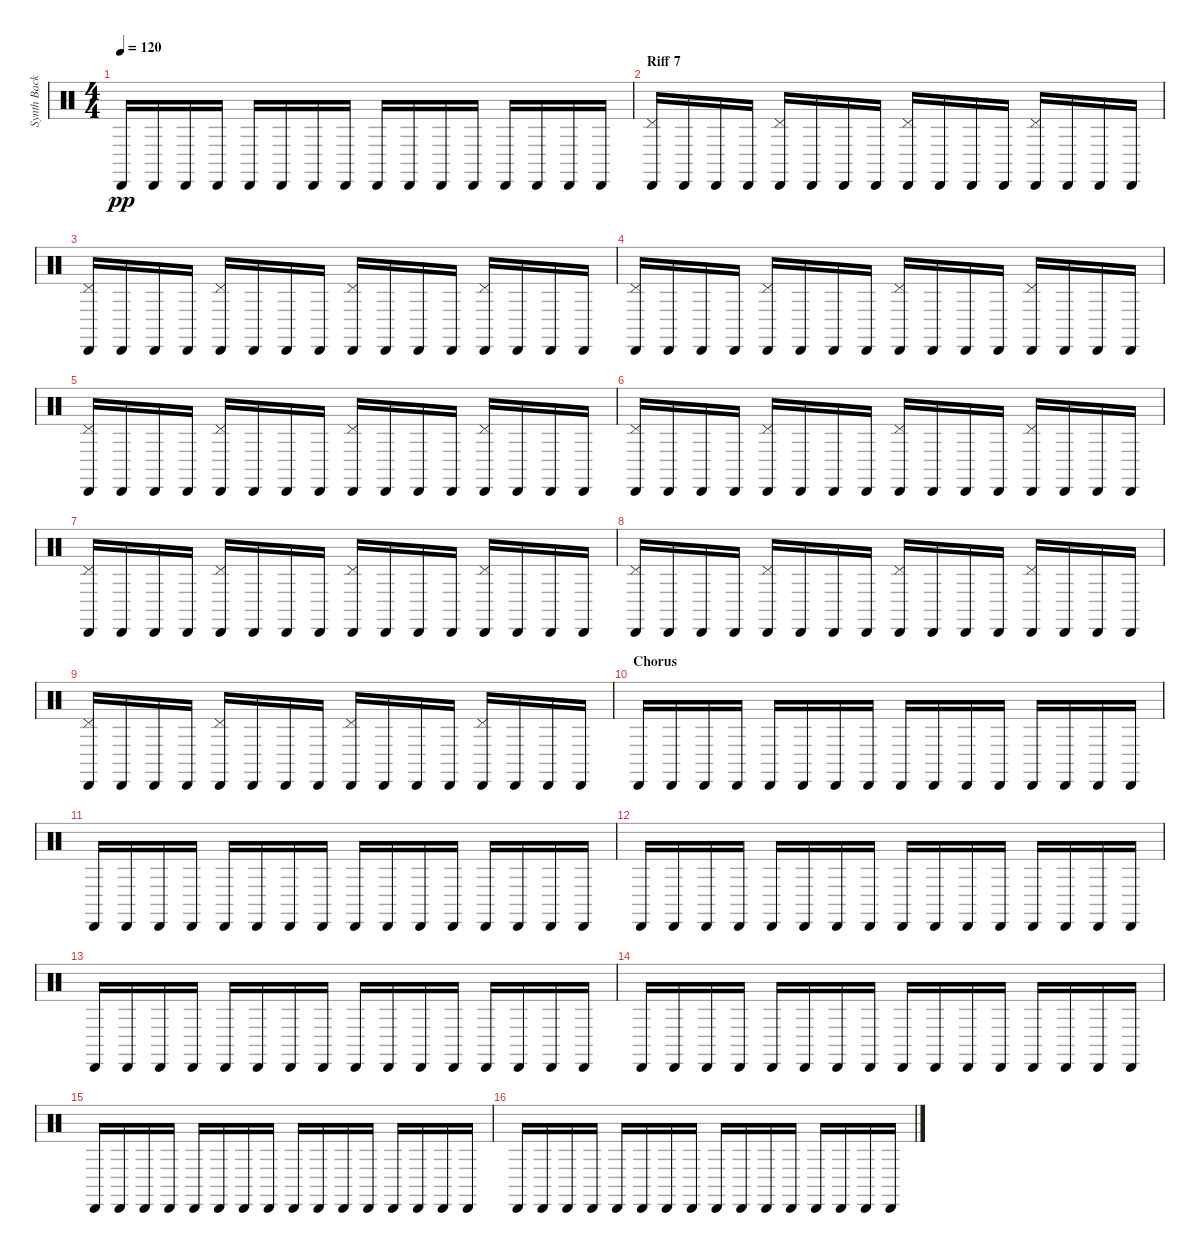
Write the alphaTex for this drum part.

\track ("Synth Background Rhythm" "Synth Back") {instrument percussion}
\staff {score}
\articulation defaults
\ts (4 4)
\tempo 120
\clef neutral
\ks c "Cabasa (hit)".16{dy pp} "Cabasa (hit)".16 "Cabasa (hit)".16 "Cabasa (hit)".16 "Cabasa (hit)".16 "Cabasa (hit)".16 "Cabasa (hit)".16 "Cabasa (hit)".16 "Cabasa (hit)".16 "Cabasa (hit)".16 "Cabasa (hit)".16 "Cabasa (hit)".16 "Cabasa (hit)".16 "Cabasa (hit)".16 "Cabasa (hit)".16 "Cabasa (hit)".16
|
\section ("" "Riff 7")
("Pedal Hi-Hat (hit)" "Cabasa (hit)").16 "Cabasa (hit)".16 "Cabasa (hit)".16 "Cabasa (hit)".16 ("Pedal Hi-Hat (hit)" "Cabasa (hit)").16 "Cabasa (hit)".16 "Cabasa (hit)".16 "Cabasa (hit)".16 ("Pedal Hi-Hat (hit)" "Cabasa (hit)").16 "Cabasa (hit)".16 "Cabasa (hit)".16 "Cabasa (hit)".16 ("Pedal Hi-Hat (hit)" "Cabasa (hit)").16 "Cabasa (hit)".16 "Cabasa (hit)".16 "Cabasa (hit)".16 |
("Pedal Hi-Hat (hit)" "Cabasa (hit)").16 "Cabasa (hit)".16 "Cabasa (hit)".16 "Cabasa (hit)".16 ("Pedal Hi-Hat (hit)" "Cabasa (hit)").16 "Cabasa (hit)".16 "Cabasa (hit)".16 "Cabasa (hit)".16 ("Pedal Hi-Hat (hit)" "Cabasa (hit)").16 "Cabasa (hit)".16 "Cabasa (hit)".16 "Cabasa (hit)".16 ("Pedal Hi-Hat (hit)" "Cabasa (hit)").16 "Cabasa (hit)".16 "Cabasa (hit)".16 "Cabasa (hit)".16 |
("Pedal Hi-Hat (hit)" "Cabasa (hit)").16 "Cabasa (hit)".16 "Cabasa (hit)".16 "Cabasa (hit)".16 ("Pedal Hi-Hat (hit)" "Cabasa (hit)").16 "Cabasa (hit)".16 "Cabasa (hit)".16 "Cabasa (hit)".16 ("Pedal Hi-Hat (hit)" "Cabasa (hit)").16 "Cabasa (hit)".16 "Cabasa (hit)".16 "Cabasa (hit)".16 ("Pedal Hi-Hat (hit)" "Cabasa (hit)").16 "Cabasa (hit)".16 "Cabasa (hit)".16 "Cabasa (hit)".16 |
("Pedal Hi-Hat (hit)" "Cabasa (hit)").16 "Cabasa (hit)".16 "Cabasa (hit)".16 "Cabasa (hit)".16 ("Pedal Hi-Hat (hit)" "Cabasa (hit)").16 "Cabasa (hit)".16 "Cabasa (hit)".16 "Cabasa (hit)".16 ("Pedal Hi-Hat (hit)" "Cabasa (hit)").16 "Cabasa (hit)".16 "Cabasa (hit)".16 "Cabasa (hit)".16 ("Pedal Hi-Hat (hit)" "Cabasa (hit)").16 "Cabasa (hit)".16 "Cabasa (hit)".16 "Cabasa (hit)".16 |
("Pedal Hi-Hat (hit)" "Cabasa (hit)").16 "Cabasa (hit)".16 "Cabasa (hit)".16 "Cabasa (hit)".16 ("Pedal Hi-Hat (hit)" "Cabasa (hit)").16 "Cabasa (hit)".16 "Cabasa (hit)".16 "Cabasa (hit)".16 ("Pedal Hi-Hat (hit)" "Cabasa (hit)").16 "Cabasa (hit)".16 "Cabasa (hit)".16 "Cabasa (hit)".16 ("Pedal Hi-Hat (hit)" "Cabasa (hit)").16 "Cabasa (hit)".16 "Cabasa (hit)".16 "Cabasa (hit)".16 |
("Pedal Hi-Hat (hit)" "Cabasa (hit)").16 "Cabasa (hit)".16 "Cabasa (hit)".16 "Cabasa (hit)".16 ("Pedal Hi-Hat (hit)" "Cabasa (hit)").16 "Cabasa (hit)".16 "Cabasa (hit)".16 "Cabasa (hit)".16 ("Pedal Hi-Hat (hit)" "Cabasa (hit)").16 "Cabasa (hit)".16 "Cabasa (hit)".16 "Cabasa (hit)".16 ("Pedal Hi-Hat (hit)" "Cabasa (hit)").16 "Cabasa (hit)".16 "Cabasa (hit)".16 "Cabasa (hit)".16 |
("Pedal Hi-Hat (hit)" "Cabasa (hit)").16 "Cabasa (hit)".16 "Cabasa (hit)".16 "Cabasa (hit)".16 ("Pedal Hi-Hat (hit)" "Cabasa (hit)").16 "Cabasa (hit)".16 "Cabasa (hit)".16 "Cabasa (hit)".16 ("Pedal Hi-Hat (hit)" "Cabasa (hit)").16 "Cabasa (hit)".16 "Cabasa (hit)".16 "Cabasa (hit)".16 ("Pedal Hi-Hat (hit)" "Cabasa (hit)").16 "Cabasa (hit)".16 "Cabasa (hit)".16 "Cabasa (hit)".16 |
("Pedal Hi-Hat (hit)" "Cabasa (hit)").16 "Cabasa (hit)".16 "Cabasa (hit)".16 "Cabasa (hit)".16 ("Pedal Hi-Hat (hit)" "Cabasa (hit)").16 "Cabasa (hit)".16 "Cabasa (hit)".16 "Cabasa (hit)".16 ("Pedal Hi-Hat (hit)" "Cabasa (hit)").16 "Cabasa (hit)".16 "Cabasa (hit)".16 "Cabasa (hit)".16 ("Pedal Hi-Hat (hit)" "Cabasa (hit)").16 "Cabasa (hit)".16 "Cabasa (hit)".16 "Cabasa (hit)".16 |
\section ("" "Chorus")
"Cabasa (hit)".16 "Cabasa (hit)".16 "Cabasa (hit)".16 "Cabasa (hit)".16 "Cabasa (hit)".16 "Cabasa (hit)".16 "Cabasa (hit)".16 "Cabasa (hit)".16 "Cabasa (hit)".16 "Cabasa (hit)".16 "Cabasa (hit)".16 "Cabasa (hit)".16 "Cabasa (hit)".16 "Cabasa (hit)".16 "Cabasa (hit)".16 "Cabasa (hit)".16 |
"Cabasa (hit)".16 "Cabasa (hit)".16 "Cabasa (hit)".16 "Cabasa (hit)".16 "Cabasa (hit)".16 "Cabasa (hit)".16 "Cabasa (hit)".16 "Cabasa (hit)".16 "Cabasa (hit)".16 "Cabasa (hit)".16 "Cabasa (hit)".16 "Cabasa (hit)".16 "Cabasa (hit)".16 "Cabasa (hit)".16 "Cabasa (hit)".16 "Cabasa (hit)".16 |
"Cabasa (hit)".16 "Cabasa (hit)".16 "Cabasa (hit)".16 "Cabasa (hit)".16 "Cabasa (hit)".16 "Cabasa (hit)".16 "Cabasa (hit)".16 "Cabasa (hit)".16 "Cabasa (hit)".16 "Cabasa (hit)".16 "Cabasa (hit)".16 "Cabasa (hit)".16 "Cabasa (hit)".16 "Cabasa (hit)".16 "Cabasa (hit)".16 "Cabasa (hit)".16 |
"Cabasa (hit)".16 "Cabasa (hit)".16 "Cabasa (hit)".16 "Cabasa (hit)".16 "Cabasa (hit)".16 "Cabasa (hit)".16 "Cabasa (hit)".16 "Cabasa (hit)".16 "Cabasa (hit)".16 "Cabasa (hit)".16 "Cabasa (hit)".16 "Cabasa (hit)".16 "Cabasa (hit)".16 "Cabasa (hit)".16 "Cabasa (hit)".16 "Cabasa (hit)".16 |
"Cabasa (hit)".16 "Cabasa (hit)".16 "Cabasa (hit)".16 "Cabasa (hit)".16 "Cabasa (hit)".16 "Cabasa (hit)".16 "Cabasa (hit)".16 "Cabasa (hit)".16 "Cabasa (hit)".16 "Cabasa (hit)".16 "Cabasa (hit)".16 "Cabasa (hit)".16 "Cabasa (hit)".16 "Cabasa (hit)".16 "Cabasa (hit)".16 "Cabasa (hit)".16 |
"Cabasa (hit)".16 "Cabasa (hit)".16 "Cabasa (hit)".16 "Cabasa (hit)".16 "Cabasa (hit)".16 "Cabasa (hit)".16 "Cabasa (hit)".16 "Cabasa (hit)".16 "Cabasa (hit)".16 "Cabasa (hit)".16 "Cabasa (hit)".16 "Cabasa (hit)".16 "Cabasa (hit)".16 "Cabasa (hit)".16 "Cabasa (hit)".16 "Cabasa (hit)".16 |
"Cabasa (hit)".16 "Cabasa (hit)".16 "Cabasa (hit)".16 "Cabasa (hit)".16 "Cabasa (hit)".16 "Cabasa (hit)".16 "Cabasa (hit)".16 "Cabasa (hit)".16 "Cabasa (hit)".16 "Cabasa (hit)".16 "Cabasa (hit)".16 "Cabasa (hit)".16 "Cabasa (hit)".16 "Cabasa (hit)".16 "Cabasa (hit)".16 "Cabasa (hit)".16
